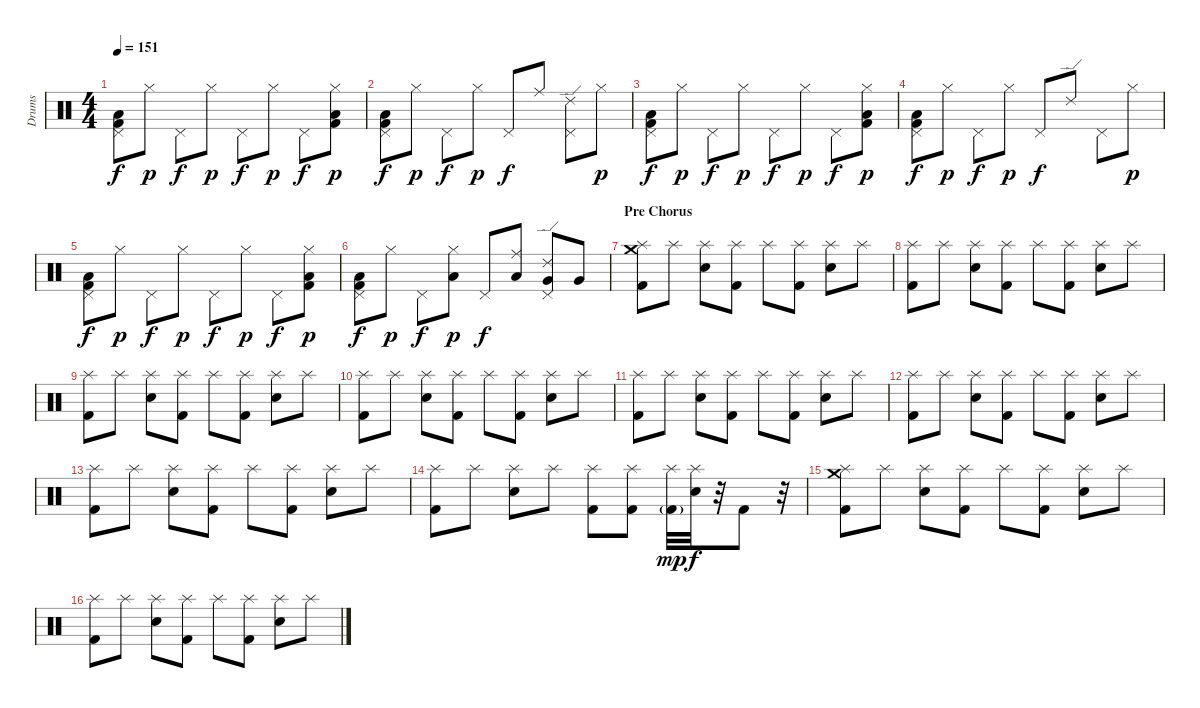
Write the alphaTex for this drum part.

\track ("Drums" "Drums") {instrument percussion}
\staff {score}
\articulation defaults
\ts (4 4)
\tempo 151
\clef neutral
\ks c
("Kick (hit) 2" "Low Floor Tom (hit)" "Pedal Hi-Hat (hit)").8{dy f volume 16} "Hi-Hat (closed)".8{dy p} "Pedal Hi-Hat (hit)".8{dy f} "Hi-Hat (closed)".8{dy p} "Pedal Hi-Hat (hit)".8{dy f} "Hi-Hat (closed)".8{dy p} "Pedal Hi-Hat (hit)".8{dy f} ("Kick (hit) 2" "Low Floor Tom (hit)" "Hi-Hat (closed)").8{dy p volume 16} |
("Kick (hit) 2" "Low Floor Tom (hit)" "Pedal Hi-Hat (hit)").8{dy f volume 16} "Hi-Hat (closed)".8{dy p} "Pedal Hi-Hat (hit)".8{dy f} "Hi-Hat (closed)".8{dy p} "Pedal Hi-Hat (hit)".8{dy f} "Ride (middle)".8 ("Ride (edge) 2" "Pedal Hi-Hat (hit)").8 "Hi-Hat (closed)".8{dy p} |
("Kick (hit) 2" "Low Floor Tom (hit)" "Pedal Hi-Hat (hit)").8{dy f volume 16} "Hi-Hat (closed)".8{dy p} "Pedal Hi-Hat (hit)".8{dy f} "Hi-Hat (closed)".8{dy p} "Pedal Hi-Hat (hit)".8{dy f} "Hi-Hat (closed)".8{dy p} "Pedal Hi-Hat (hit)".8{dy f} ("Kick (hit) 2" "Low Floor Tom (hit)" "Hi-Hat (closed)").8{dy p volume 16} |
("Kick (hit) 2" "Low Floor Tom (hit)" "Pedal Hi-Hat (hit)").8{dy f volume 16} "Hi-Hat (closed)".8{dy p} "Pedal Hi-Hat (hit)".8{dy f} "Hi-Hat (closed)".8{dy p} "Pedal Hi-Hat (hit)".8{dy f} "Ride (edge) 2".8 "Pedal Hi-Hat (hit)".8 "Hi-Hat (closed)".8{dy p} |
("Kick (hit) 2" "Low Floor Tom (hit)" "Pedal Hi-Hat (hit)").8{dy f volume 16} "Hi-Hat (closed)".8{dy p} "Pedal Hi-Hat (hit)".8{dy f} "Hi-Hat (closed)".8{dy p} "Pedal Hi-Hat (hit)".8{dy f} "Hi-Hat (closed)".8{dy p} "Pedal Hi-Hat (hit)".8{dy f} ("Kick (hit) 2" "Low Floor Tom (hit)" "Hi-Hat (closed)").8{dy p volume 16} |
("Kick (hit) 2" "Low Floor Tom (hit)" "Pedal Hi-Hat (hit)").8{dy f volume 16} "Hi-Hat (closed)".8{dy p} "Pedal Hi-Hat (hit)".8{dy f} ("Low Tom (hit)" "Hi-Hat (closed)").8{dy p} "Pedal Hi-Hat (hit)".8{dy f} ("Low Tom (hit)" "Ride (middle)").8 ("Very Low Tom (hit)" "Ride (edge) 2" "Pedal Hi-Hat (hit)").8 "Very Low Tom (hit)".8 |
\section ("" "Pre Chorus")
("Kick (hit) 2" "Splash (hit)" "Crash medium (hit)").8 "Splash (hit)".8 ("Splash (hit)" "Electric Snare (hit)").8 ("Kick (hit) 2" "Splash (hit)").8 "Splash (hit)".8 ("Kick (hit) 2" "Splash (hit)").8 ("Splash (hit)" "Electric Snare (hit)").8 "Splash (hit)".8 |
("Kick (hit) 2" "Splash (hit)").8 "Splash (hit)".8 ("Splash (hit)" "Electric Snare (hit)").8 ("Kick (hit) 2" "Splash (hit)").8 "Splash (hit)".8 ("Kick (hit) 2" "Splash (hit)").8 ("Splash (hit)" "Electric Snare (hit)").8 "Splash (hit)".8 |
("Kick (hit) 2" "Splash (hit)").8 "Splash (hit)".8 ("Splash (hit)" "Electric Snare (hit)").8 ("Kick (hit) 2" "Splash (hit)").8 "Splash (hit)".8 ("Kick (hit) 2" "Splash (hit)").8 ("Splash (hit)" "Electric Snare (hit)").8 "Splash (hit)".8 |
("Kick (hit) 2" "Splash (hit)").8 "Splash (hit)".8 ("Splash (hit)" "Electric Snare (hit)").8 ("Kick (hit) 2" "Splash (hit)").8 "Splash (hit)".8 ("Kick (hit) 2" "Splash (hit)").8 ("Splash (hit)" "Electric Snare (hit)").8 "Splash (hit)".8 |
("Kick (hit) 2" "Splash (hit)").8 "Splash (hit)".8 ("Splash (hit)" "Electric Snare (hit)").8 ("Kick (hit) 2" "Splash (hit)").8 "Splash (hit)".8 ("Kick (hit) 2" "Splash (hit)").8 ("Splash (hit)" "Electric Snare (hit)").8 "Splash (hit)".8 |
("Kick (hit) 2" "Splash (hit)").8 "Splash (hit)".8 ("Splash (hit)" "Electric Snare (hit)").8 ("Kick (hit) 2" "Splash (hit)").8 "Splash (hit)".8 ("Kick (hit) 2" "Splash (hit)").8 ("Splash (hit)" "Electric Snare (hit)").8 "Splash (hit)".8 |
("Kick (hit) 2" "Splash (hit)").8 "Splash (hit)".8 ("Splash (hit)" "Electric Snare (hit)").8 ("Kick (hit) 2" "Splash (hit)").8 "Splash (hit)".8 ("Kick (hit) 2" "Splash (hit)").8 ("Splash (hit)" "Electric Snare (hit)").8 "Splash (hit)".8 |
("Kick (hit) 2" "Splash (hit)").8 "Splash (hit)".8 ("Splash (hit)" "Electric Snare (hit)").8 "Splash (hit)".8 ("Kick (hit) 2" "Splash (hit)").8 ("Kick (hit) 2" "Splash (hit)").8 ("Splash (hit)" "Kick (hit) 2"{g}).32{dy mp} ("Splash (hit)" "Electric Snare (hit)").32{dy f} r.32 "Kick (hit) 2".8 r.32 |
("Kick (hit) 2" "Splash (hit)" "Crash medium (hit)").8 "Splash (hit)".8 ("Splash (hit)" "Electric Snare (hit)").8 ("Kick (hit) 2" "Splash (hit)").8 "Splash (hit)".8 ("Kick (hit) 2" "Splash (hit)").8 ("Splash (hit)" "Electric Snare (hit)").8 "Splash (hit)".8 |
("Kick (hit) 2" "Splash (hit)").8 "Splash (hit)".8 ("Splash (hit)" "Electric Snare (hit)").8 ("Kick (hit) 2" "Splash (hit)").8 "Splash (hit)".8 ("Kick (hit) 2" "Splash (hit)").8 ("Splash (hit)" "Electric Snare (hit)").8 "Splash (hit)".8
